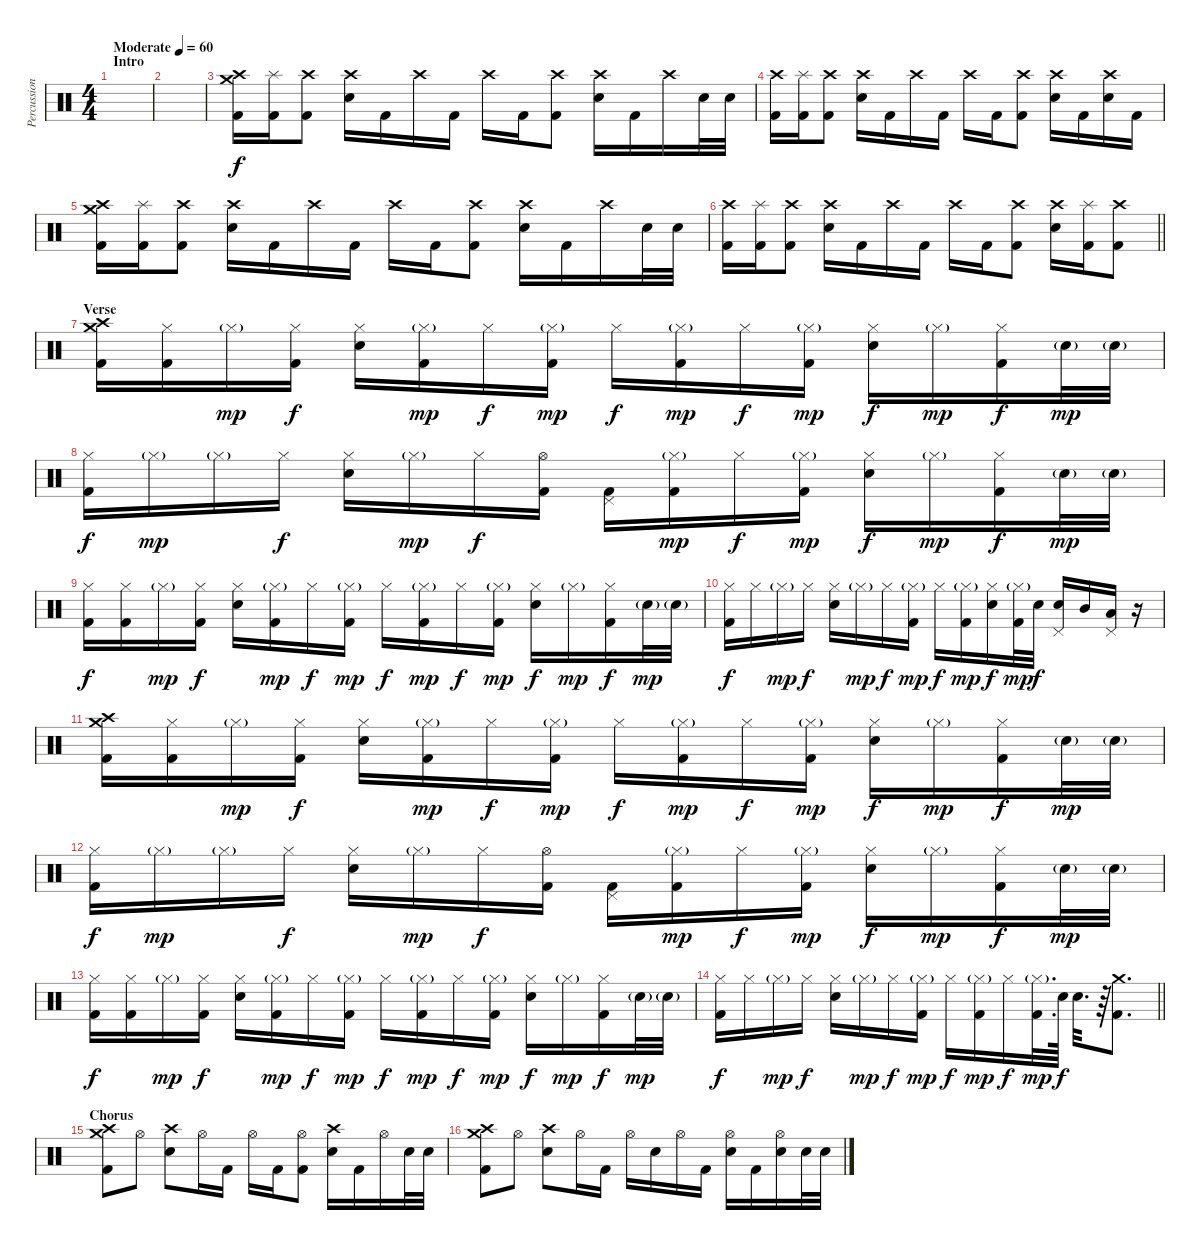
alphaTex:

\track ("Percussion" "Percussion") {instrument percussion}
\staff {score}
\articulation defaults
\ts (4 4)
\section ("" "Intro")
\tempo (60 "Moderate")
\clef neutral
\ks c
|
|
("Crash high (hit)" "Crash medium (hit)" "Kick (hit) 2").16 ("Splash (hit)" "Kick (hit) 2").16 ("Crash high (hit)" "Kick (hit) 2").8 ("Crash high (hit)" "Electric Snare (hit)").16 "Kick (hit) 2".16 "Crash high (hit)".16 "Kick (hit) 2".16 "Crash high (hit)".16 "Kick (hit) 2".16 ("Crash high (hit)" "Kick (hit) 2").8 ("Crash high (hit)" "Electric Snare (hit)").16 "Kick (hit) 2".16 "Crash high (hit)".16 "Electric Snare (hit)".32 "Electric Snare (hit)".32 |
("Crash high (hit)" "Kick (hit) 2").16 ("Splash (hit)" "Kick (hit) 2").16 ("Crash high (hit)" "Kick (hit) 2").8 ("Crash high (hit)" "Electric Snare (hit)").16 "Kick (hit) 2".16 "Crash high (hit)".16 "Kick (hit) 2".16 "Crash high (hit)".16 "Kick (hit) 2".16 ("Crash high (hit)" "Kick (hit) 2").8 ("Crash high (hit)" "Electric Snare (hit)").16 "Kick (hit) 2".16 ("Crash high (hit)" "Electric Snare (hit)").16 "Kick (hit) 2".16 |
("Crash high (hit)" "Crash medium (hit)" "Kick (hit) 2").16 ("Splash (hit)" "Kick (hit) 2").16 ("Crash high (hit)" "Kick (hit) 2").8 ("Crash high (hit)" "Electric Snare (hit)").16 "Kick (hit) 2".16 "Crash high (hit)".16 "Kick (hit) 2".16 "Crash high (hit)".16 "Kick (hit) 2".16 ("Crash high (hit)" "Kick (hit) 2").8 ("Crash high (hit)" "Electric Snare (hit)").16 "Kick (hit) 2".16 "Crash high (hit)".16 "Electric Snare (hit)".32 "Electric Snare (hit)".32 |
\barLineRight lightlight
("Crash high (hit)" "Kick (hit) 2").16 ("Splash (hit)" "Kick (hit) 2").16 ("Crash high (hit)" "Kick (hit) 2").8 ("Crash high (hit)" "Electric Snare (hit)").16 "Kick (hit) 2".16 "Crash high (hit)".16 "Kick (hit) 2".16 "Crash high (hit)".16 "Kick (hit) 2".16 ("Crash high (hit)" "Kick (hit) 2").8 ("Crash high (hit)" "Electric Snare (hit)").16 ("Splash (hit)" "Kick (hit) 2").16 ("Crash high (hit)" "Kick (hit) 2").8 |
\section ("" "Verse")
("Crash medium (hit)" "Crash high (hit)" "Kick (hit) 2").16 ("Hi-Hat (closed)" "Kick (hit) 2").16 "Hi-Hat (closed)"{g}.16{dy mp} ("Hi-Hat (closed)" "Kick (hit) 2").16{dy f} ("Hi-Hat (closed)" "Electric Snare (hit)").16 ("Hi-Hat (closed)"{g} "Kick (hit) 2").16{dy mp} "Hi-Hat (closed)".16{dy f} ("Hi-Hat (closed)"{g} "Kick (hit) 2").16{dy mp} "Hi-Hat (closed)".16{dy f} ("Hi-Hat (closed)"{g} "Kick (hit) 2").16{dy mp} "Hi-Hat (closed)".16{dy f} ("Hi-Hat (closed)"{g} "Kick (hit) 2").16{dy mp} ("Hi-Hat (closed)" "Electric Snare (hit)").16{dy f} "Hi-Hat (closed)"{g}.16{dy mp} ("Hi-Hat (closed)" "Kick (hit) 2").16{dy f} "Electric Snare (hit)"{g}.32{dy mp} "Electric Snare (hit)"{g}.32 |
("Hi-Hat (closed)" "Kick (hit) 2").16{dy f} "Hi-Hat (closed)"{g}.16{dy mp} "Hi-Hat (closed)"{g}.16 "Hi-Hat (closed)".16{dy f} ("Hi-Hat (closed)" "Electric Snare (hit)").16 "Hi-Hat (closed)"{g}.16{dy mp} "Hi-Hat (closed)".16{dy f} ("Hi-Hat (open)" "Kick (hit) 2").16 ("Pedal Hi-Hat (hit)" "Kick (hit) 2").16 ("Hi-Hat (closed)"{g} "Kick (hit) 2").16{dy mp} "Hi-Hat (closed)".16{dy f} ("Hi-Hat (closed)"{g} "Kick (hit) 2").16{dy mp} ("Hi-Hat (closed)" "Electric Snare (hit)").16{dy f} "Hi-Hat (closed)"{g}.16{dy mp} ("Hi-Hat (closed)" "Kick (hit) 2").16{dy f} "Electric Snare (hit)"{g}.32{dy mp} "Electric Snare (hit)"{g}.32 |
("Hi-Hat (closed)" "Kick (hit) 2").16{dy f} ("Hi-Hat (closed)" "Kick (hit) 2").16 "Hi-Hat (closed)"{g}.16{dy mp} ("Hi-Hat (closed)" "Kick (hit) 2").16{dy f} ("Hi-Hat (closed)" "Electric Snare (hit)").16 ("Hi-Hat (closed)"{g} "Kick (hit) 2").16{dy mp} "Hi-Hat (closed)".16{dy f} ("Hi-Hat (closed)"{g} "Kick (hit) 2").16{dy mp} "Hi-Hat (closed)".16{dy f} ("Hi-Hat (closed)"{g} "Kick (hit) 2").16{dy mp} "Hi-Hat (closed)".16{dy f} ("Hi-Hat (closed)"{g} "Kick (hit) 2").16{dy mp} ("Hi-Hat (closed)" "Electric Snare (hit)").16{dy f} "Hi-Hat (closed)"{g}.16{dy mp} ("Hi-Hat (closed)" "Kick (hit) 2").16{dy f} "Electric Snare (hit)"{g}.32{dy mp} "Electric Snare (hit)"{g}.32 |
("Hi-Hat (closed)" "Kick (hit) 2").16{dy f} "Hi-Hat (closed)".16 "Hi-Hat (closed)"{g}.16{dy mp} "Hi-Hat (closed)".16{dy f} ("Hi-Hat (closed)" "Electric Snare (hit)").16 "Hi-Hat (closed)"{g}.16{dy mp} "Hi-Hat (closed)".16{dy f} ("Hi-Hat (closed)"{g} "Kick (hit) 2").16{dy mp} "Hi-Hat (closed)".16{dy f} ("Hi-Hat (closed)"{g} "Kick (hit) 2").16{dy mp} ("Hi-Hat (closed)" "Electric Snare (hit)").16{dy f} ("Hi-Hat (closed)"{g} "Kick (hit) 2").32{dy mp} "Electric Snare (hit)".32{dy f} ("Pedal Hi-Hat (hit)" "Electric Snare (hit)").16 "Mid Tom (hit)".16 ("Pedal Hi-Hat (hit)" "Low Tom (hit)").16 r.16 |
("Crash medium (hit)" "Crash high (hit)" "Kick (hit) 2").16 ("Hi-Hat (closed)" "Kick (hit) 2").16 "Hi-Hat (closed)"{g}.16{dy mp} ("Hi-Hat (closed)" "Kick (hit) 2").16{dy f} ("Hi-Hat (closed)" "Electric Snare (hit)").16 ("Hi-Hat (closed)"{g} "Kick (hit) 2").16{dy mp} "Hi-Hat (closed)".16{dy f} ("Hi-Hat (closed)"{g} "Kick (hit) 2").16{dy mp} "Hi-Hat (closed)".16{dy f} ("Hi-Hat (closed)"{g} "Kick (hit) 2").16{dy mp} "Hi-Hat (closed)".16{dy f} ("Hi-Hat (closed)"{g} "Kick (hit) 2").16{dy mp} ("Hi-Hat (closed)" "Electric Snare (hit)").16{dy f} "Hi-Hat (closed)"{g}.16{dy mp} ("Hi-Hat (closed)" "Kick (hit) 2").16{dy f} "Electric Snare (hit)"{g}.32{dy mp} "Electric Snare (hit)"{g}.32 |
("Hi-Hat (closed)" "Kick (hit) 2").16{dy f} "Hi-Hat (closed)"{g}.16{dy mp} "Hi-Hat (closed)"{g}.16 "Hi-Hat (closed)".16{dy f} ("Hi-Hat (closed)" "Electric Snare (hit)").16 "Hi-Hat (closed)"{g}.16{dy mp} "Hi-Hat (closed)".16{dy f} ("Hi-Hat (open)" "Kick (hit) 2").16 ("Pedal Hi-Hat (hit)" "Kick (hit) 2").16 ("Hi-Hat (closed)"{g} "Kick (hit) 2").16{dy mp} "Hi-Hat (closed)".16{dy f} ("Hi-Hat (closed)"{g} "Kick (hit) 2").16{dy mp} ("Hi-Hat (closed)" "Electric Snare (hit)").16{dy f} "Hi-Hat (closed)"{g}.16{dy mp} ("Hi-Hat (closed)" "Kick (hit) 2").16{dy f} "Electric Snare (hit)"{g}.32{dy mp} "Electric Snare (hit)"{g}.32 |
("Hi-Hat (closed)" "Kick (hit) 2").16{dy f} ("Hi-Hat (closed)" "Kick (hit) 2").16 "Hi-Hat (closed)"{g}.16{dy mp} ("Hi-Hat (closed)" "Kick (hit) 2").16{dy f} ("Hi-Hat (closed)" "Electric Snare (hit)").16 ("Hi-Hat (closed)"{g} "Kick (hit) 2").16{dy mp} "Hi-Hat (closed)".16{dy f} ("Hi-Hat (closed)"{g} "Kick (hit) 2").16{dy mp} "Hi-Hat (closed)".16{dy f} ("Hi-Hat (closed)"{g} "Kick (hit) 2").16{dy mp} "Hi-Hat (closed)".16{dy f} ("Hi-Hat (closed)"{g} "Kick (hit) 2").16{dy mp} ("Hi-Hat (closed)" "Electric Snare (hit)").16{dy f} "Hi-Hat (closed)"{g}.16{dy mp} ("Hi-Hat (closed)" "Kick (hit) 2").16{dy f} "Electric Snare (hit)"{g}.32{dy mp} "Electric Snare (hit)"{g}.32 |
\barLineRight lightlight
("Hi-Hat (closed)" "Kick (hit) 2").16{dy f} "Hi-Hat (closed)".16 "Hi-Hat (closed)"{g}.16{dy mp} "Hi-Hat (closed)".16{dy f} ("Hi-Hat (closed)" "Electric Snare (hit)").16 "Hi-Hat (closed)"{g}.16{dy mp} "Hi-Hat (closed)".16{dy f} ("Hi-Hat (closed)"{g} "Kick (hit) 2").16{dy mp} "Hi-Hat (closed)".16{dy f} ("Hi-Hat (closed)"{g} "Kick (hit) 2").16{dy mp} "Hi-Hat (closed)".16{dy f} ("Hi-Hat (closed)"{g} "Kick (hit) 2").32{d dy mp} "Electric Snare (hit)".64{dy f} "Electric Snare (hit)".32{d} r.64 ("Crash medium (hit)" "Kick (hit) 2").8{d} |
\section ("" "Chorus")
("Crash medium (hit)" "Crash high (hit)" "Kick (hit) 2").8 "Hi-Hat (open)".8 ("Crash high (hit)" "Electric Snare (hit)").8 "Hi-Hat (open)".16 "Kick (hit) 2".16 "Hi-Hat (open)".16 "Kick (hit) 2".16 ("Hi-Hat (open)" "Kick (hit) 2").8 ("Crash high (hit)" "Electric Snare (hit)").16 "Kick (hit) 2".16 "Hi-Hat (open)".16 "Electric Snare (hit)".32 "Electric Snare (hit)".32 |
("Crash medium (hit)" "Crash high (hit)" "Kick (hit) 2").8 "Hi-Hat (open)".8 ("Crash high (hit)" "Electric Snare (hit)").8 "Hi-Hat (open)".16 "Kick (hit) 2".16 "Hi-Hat (open)".16 "Electric Snare (hit)".16 "Hi-Hat (open)".16 "Kick (hit) 2".16 ("Hi-Hat (open)" "Electric Snare (hit)").16 "Kick (hit) 2".16 ("Hi-Hat (open)" "Electric Snare (hit)").16 "Electric Snare (hit)".32 "Electric Snare (hit)".32
